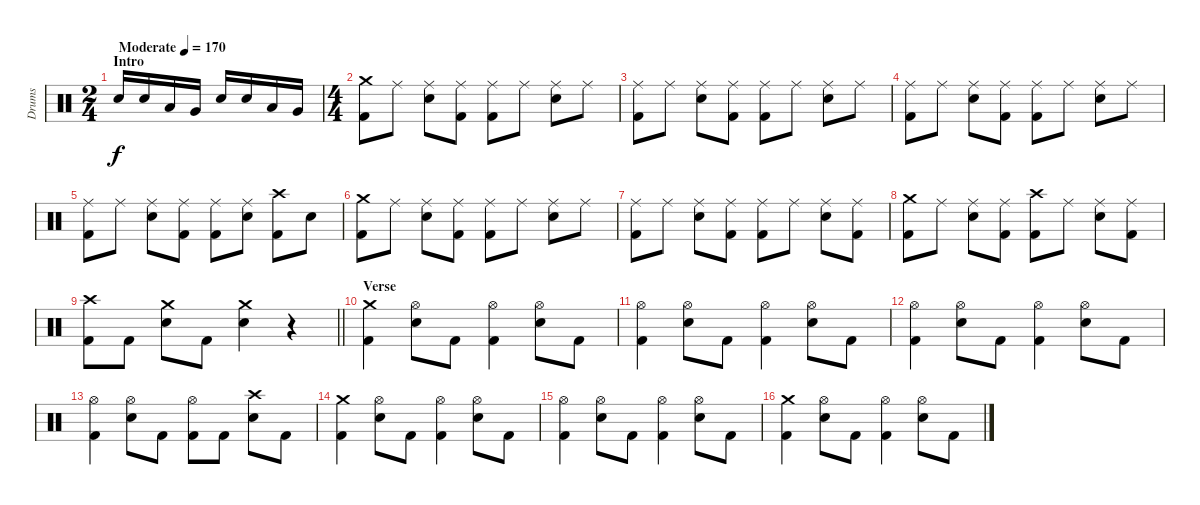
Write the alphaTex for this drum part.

\track ("Drums" "Drums") {instrument percussion}
\staff {score}
\articulation defaults
\ts (2 4)
\section ("" "Intro")
\tempo (170 "Moderate")
\clef neutral
\ks c "Electric Snare (hit)".16{dy f} "Electric Snare (hit)".16 "Low Tom (hit)".16 "Very Low Tom (hit)".16 "Electric Snare (hit)".16 "Electric Snare (hit)".16 "Low Tom (hit)".16 "Very Low Tom (hit)".16
|
\ts (4 4)
("Crash medium (hit)" "Kick (hit) 2").8 "Ride (middle)".8 ("Ride (middle)" "Electric Snare (hit)").8 ("Ride (middle)" "Kick (hit) 2").8 ("Ride (middle)" "Kick (hit) 2").8 "Ride (middle)".8 ("Ride (middle)" "Electric Snare (hit)").8 "Ride (middle)".8 |
("Ride (middle)" "Kick (hit) 2").8 "Ride (middle)".8 ("Ride (middle)" "Electric Snare (hit)").8 ("Ride (middle)" "Kick (hit) 2").8 ("Ride (middle)" "Kick (hit) 2").8 "Ride (middle)".8 ("Ride (middle)" "Electric Snare (hit)").8 "Ride (middle)".8 |
("Ride (middle)" "Kick (hit) 2").8 "Ride (middle)".8 ("Ride (middle)" "Electric Snare (hit)").8 ("Ride (middle)" "Kick (hit) 2").8 ("Ride (middle)" "Kick (hit) 2").8 "Ride (middle)".8 ("Ride (middle)" "Electric Snare (hit)").8 "Ride (middle)".8 |
("Ride (middle)" "Kick (hit) 2").8 "Ride (middle)".8 ("Ride (middle)" "Electric Snare (hit)").8 ("Ride (middle)" "Kick (hit) 2").8 ("Ride (middle)" "Kick (hit) 2").8 ("Ride (middle)" "Electric Snare (hit)").8 ("Crash high (hit)" "Kick (hit) 2").8 "Electric Snare (hit)".8 |
("Crash medium (hit)" "Kick (hit) 2").8 "Ride (middle)".8 ("Ride (middle)" "Electric Snare (hit)").8 ("Ride (middle)" "Kick (hit) 2").8 ("Ride (middle)" "Kick (hit) 2").8 "Ride (middle)".8 ("Ride (middle)" "Electric Snare (hit)").8 "Ride (middle)".8 |
("Ride (middle)" "Kick (hit) 2").8 "Ride (middle)".8 ("Ride (middle)" "Electric Snare (hit)").8 ("Ride (middle)" "Kick (hit) 2").8 ("Ride (middle)" "Kick (hit) 2").8 "Ride (middle)".8 ("Ride (middle)" "Electric Snare (hit)").8 ("Ride (middle)" "Kick (hit) 2").8 |
("Crash medium (hit)" "Kick (hit) 2").8 "Ride (middle)".8 ("Ride (middle)" "Electric Snare (hit)").8 ("Ride (middle)" "Kick (hit) 2").8 ("Crash high (hit)" "Kick (hit) 2").8 "Ride (middle)".8 ("Ride (middle)" "Electric Snare (hit)").8 ("Ride (middle)" "Kick (hit) 2").8 |
\barLineRight lightlight
("Crash high (hit)" "Kick (hit) 2").8 "Kick (hit) 2".8 ("Crash medium (hit)" "Electric Snare (hit)").8 "Kick (hit) 2".8 ("Crash medium (hit)" "Electric Snare (hit)").4 r.4 |
\section ("" "Verse")
("Crash medium (hit)" "Kick (hit) 2").4 ("Hi-Hat (open)" "Electric Snare (hit)").8 "Kick (hit) 2".8 ("Hi-Hat (open)" "Kick (hit) 2").4 ("Hi-Hat (open)" "Electric Snare (hit)").8 "Kick (hit) 2".8 |
("Hi-Hat (open)" "Kick (hit) 2").4 ("Hi-Hat (open)" "Electric Snare (hit)").8 "Kick (hit) 2".8 ("Hi-Hat (open)" "Kick (hit) 2").4 ("Hi-Hat (open)" "Electric Snare (hit)").8 "Kick (hit) 2".8 |
("Hi-Hat (open)" "Kick (hit) 2").4 ("Hi-Hat (open)" "Electric Snare (hit)").8 "Kick (hit) 2".8 ("Hi-Hat (open)" "Kick (hit) 2").4 ("Hi-Hat (open)" "Electric Snare (hit)").8 "Kick (hit) 2".8 |
("Hi-Hat (open)" "Kick (hit) 2").4 ("Hi-Hat (open)" "Electric Snare (hit)").8 "Kick (hit) 2".8 ("Hi-Hat (open)" "Kick (hit) 2").8 "Kick (hit) 2".8 ("Crash high (hit)" "Electric Snare (hit)").8 "Kick (hit) 2".8 |
("Crash medium (hit)" "Kick (hit) 2").4 ("Hi-Hat (open)" "Electric Snare (hit)").8 "Kick (hit) 2".8 ("Hi-Hat (open)" "Kick (hit) 2").4 ("Hi-Hat (open)" "Electric Snare (hit)").8 "Kick (hit) 2".8 |
("Hi-Hat (open)" "Kick (hit) 2").4 ("Hi-Hat (open)" "Electric Snare (hit)").8 "Kick (hit) 2".8 ("Hi-Hat (open)" "Kick (hit) 2").4 ("Hi-Hat (open)" "Electric Snare (hit)").8 "Kick (hit) 2".8 |
("Crash medium (hit)" "Kick (hit) 2").4 ("Hi-Hat (open)" "Electric Snare (hit)").8 "Kick (hit) 2".8 ("Hi-Hat (open)" "Kick (hit) 2").4 ("Hi-Hat (open)" "Electric Snare (hit)").8 "Kick (hit) 2".8
